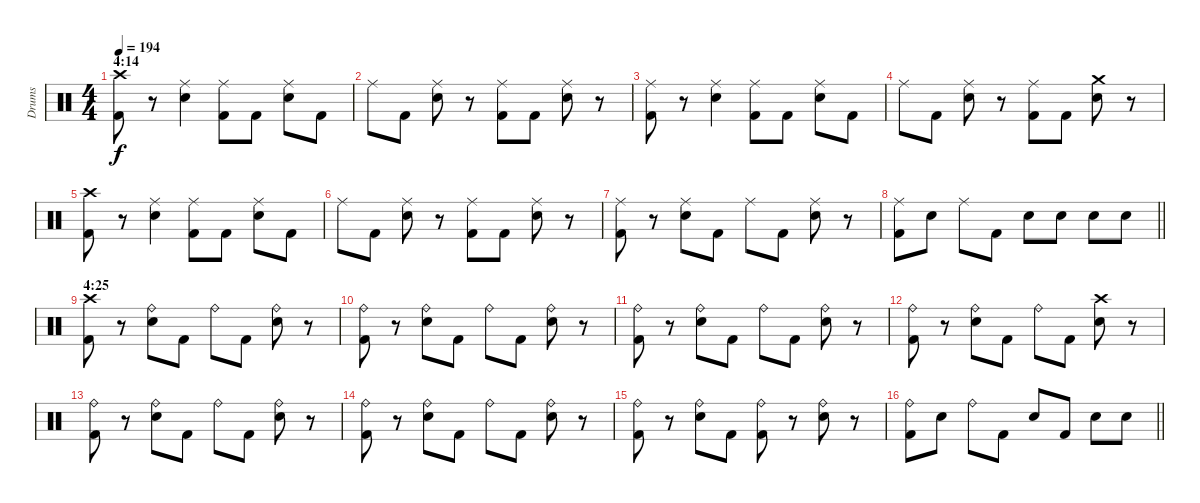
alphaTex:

\track ("Drums" "Drums") {instrument percussion}
\staff {score}
\articulation defaults
\ts (4 4)
\section ("" "4:14")
\tempo 194
\clef neutral
\ks c
("Crash high (hit)" "Kick (hit) 2").8{dy f} r.8 ("Ride (middle)" "Snare (hit) 2").4 ("Ride (middle)" "Kick (hit) 2").8 "Kick (hit) 2".8 ("Ride (middle)" "Snare (hit) 2").8 "Kick (hit) 2".8 |
"Ride (middle)".8 "Kick (hit) 2".8 ("Ride (middle)" "Snare (hit) 2").8 r.8 ("Ride (middle)" "Kick (hit) 2").8 "Kick (hit) 2".8 ("Ride (middle)" "Snare (hit) 2").8 r.8 |
("Ride (middle)" "Kick (hit) 2").8 r.8 ("Ride (middle)" "Snare (hit) 2").4 ("Ride (middle)" "Kick (hit) 2").8 "Kick (hit) 2".8 ("Ride (middle)" "Snare (hit) 2").8 "Kick (hit) 2".8 |
"Ride (middle)".8 "Kick (hit) 2".8 ("Ride (middle)" "Snare (hit) 2").8 r.8 ("Ride (middle)" "Kick (hit) 2").8 "Kick (hit) 2".8 ("Crash medium (hit)" "Snare (hit) 2").8 r.8 |
("Crash high (hit)" "Kick (hit) 2").8 r.8 ("Ride (middle)" "Snare (hit) 2").4 ("Ride (middle)" "Kick (hit) 2").8 "Kick (hit) 2".8 ("Ride (middle)" "Snare (hit) 2").8 "Kick (hit) 2".8 |
"Ride (middle)".8 "Kick (hit) 2".8 ("Ride (middle)" "Snare (hit) 2").8 r.8 ("Ride (middle)" "Kick (hit) 2").8 "Kick (hit) 2".8 ("Ride (middle)" "Snare (hit) 2").8 r.8 |
("Ride (middle)" "Kick (hit) 2").8 r.8 ("Ride (middle)" "Snare (hit) 2").8 "Kick (hit) 2".8 "Ride (middle)".8 "Kick (hit) 2".8 ("Ride (middle)" "Snare (hit) 2").8 r.8 |
\barLineRight lightlight
("Ride (middle)" "Kick (hit) 2").8 "Snare (hit) 2".8 "Ride (middle)".8 "Kick (hit) 2".8 "Snare (hit) 2".8 "Snare (hit) 2".8 "Snare (hit) 2".8 "Snare (hit) 2".8 |
\section ("" "4:25")
("Crash high (hit)" "Kick (hit) 2").8 r.8 ("Ride (bell)" "Snare (hit) 2").8 "Kick (hit) 2".8 "Ride (bell)".8 "Kick (hit) 2".8 ("Ride (bell)" "Snare (hit) 2").8 r.8 |
("Ride (bell)" "Kick (hit) 2").8 r.8 ("Ride (bell)" "Snare (hit) 2").8 "Kick (hit) 2".8 "Ride (bell)".8 "Kick (hit) 2".8 ("Ride (bell)" "Snare (hit) 2").8 r.8 |
("Ride (bell)" "Kick (hit) 2").8 r.8 ("Ride (bell)" "Snare (hit) 2").8 "Kick (hit) 2".8 "Ride (bell)".8 "Kick (hit) 2".8 ("Ride (bell)" "Snare (hit) 2").8 r.8 |
("Ride (bell)" "Kick (hit) 2").8 r.8 ("Ride (bell)" "Snare (hit) 2").8 "Kick (hit) 2".8 "Ride (bell)".8 "Kick (hit) 2".8 ("Crash high (hit)" "Snare (hit) 2").8 r.8 |
("Ride (bell)" "Kick (hit) 2").8 r.8 ("Ride (bell)" "Snare (hit) 2").8 "Kick (hit) 2".8 "Ride (bell)".8 "Kick (hit) 2".8 ("Ride (bell)" "Snare (hit) 2").8 r.8 |
("Ride (bell)" "Kick (hit) 2").8 r.8 ("Ride (bell)" "Snare (hit) 2").8 "Kick (hit) 2".8 "Ride (bell)".8 "Kick (hit) 2".8 ("Ride (bell)" "Snare (hit) 2").8 r.8 |
("Ride (bell)" "Kick (hit) 2").8 r.8 ("Ride (bell)" "Snare (hit) 2").8 "Kick (hit) 2".8 ("Ride (bell)" "Kick (hit) 2").8 r.8 ("Ride (bell)" "Snare (hit) 2").8 r.8 |
\barLineRight lightlight
("Ride (bell)" "Kick (hit) 2").8 "Snare (hit) 2".8 "Ride (bell)".8 "Kick (hit) 2".8 "Snare (hit) 2".8 "Kick (hit) 2".8 "Snare (hit) 2".8 "Snare (hit) 2".8
